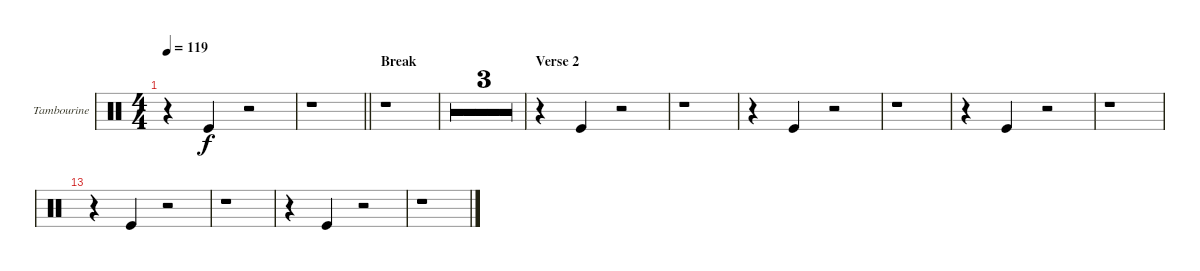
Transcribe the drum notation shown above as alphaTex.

\defaultSystemsLayout 4
\bracketExtendMode groupsimilarinstruments
\useSystemSignSeparator
\multiBarRest
\multiTrackTrackNamePolicy allsystems
\firstSystemTrackNameMode fullname
\firstSystemTrackNameOrientation horizontal
\otherSystemsTrackNameOrientation horizontal
\defaultBarNumberDisplay FirstOfSystem
\track ("Tambourine" "Tamb.") {multiBarRest instrument percussion}
\staff {score}
\articulation defaults
\ts (4 4)
\tempo 119
\clef neutral
\ks aminor
r.4{dy f} "Kick (hit)".4 r.2 |
\barLineRight lightlight
r.1 |
\section ("" "Break")
r.1 |
r.1 |
r.1 |
\barLineRight lightlight
r.1 |
\section ("" "Verse 2")
r.4 "Kick (hit)".4 r.2 |
r.1 |
r.4 "Kick (hit)".4 r.2 |
r.1 |
r.4 "Kick (hit)".4 r.2 |
r.1 |
r.4 "Kick (hit)".4 r.2 |
r.1 |
r.4 "Kick (hit)".4 r.2 |
r.1
